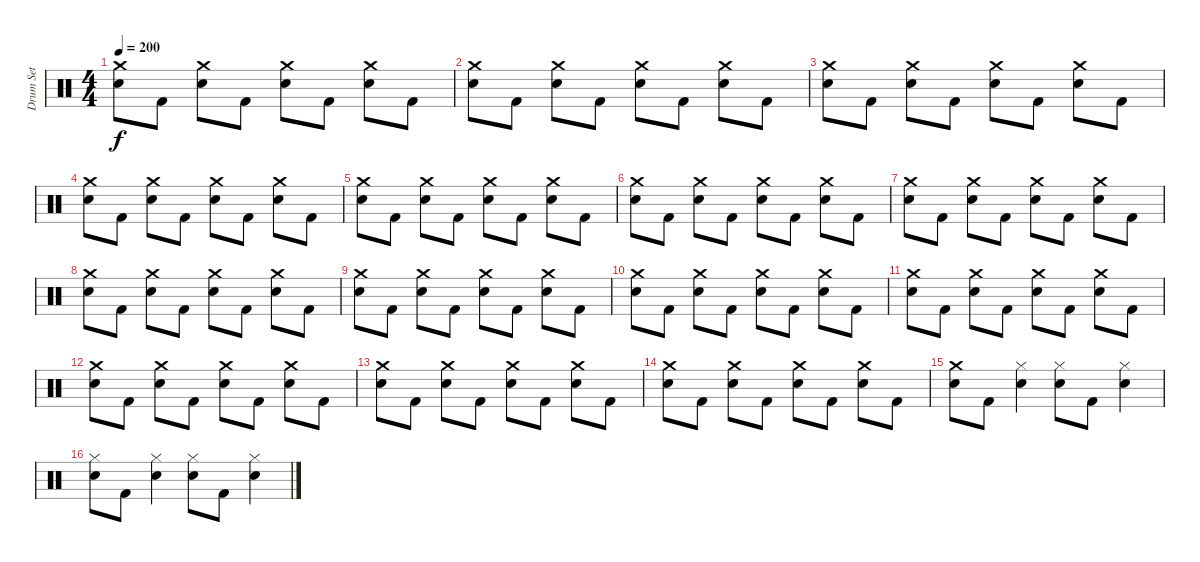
\track ("Drum Set" "Drum Set") {instrument percussion}
\staff {score}
\articulation defaults
\ts (4 4)
\tempo 200
\clef neutral
\ks c
("Crash medium (hit)" "Snare (hit) 2").8{dy f} "Kick (hit) 2".8 ("Crash medium (hit)" "Snare (hit) 2").8 "Kick (hit) 2".8 ("Crash medium (hit)" "Snare (hit) 2").8 "Kick (hit) 2".8 ("Crash medium (hit)" "Snare (hit) 2").8 "Kick (hit) 2".8 |
("Crash medium (hit)" "Snare (hit) 2").8 "Kick (hit) 2".8 ("Crash medium (hit)" "Snare (hit) 2").8 "Kick (hit) 2".8 ("Crash medium (hit)" "Snare (hit) 2").8 "Kick (hit) 2".8 ("Crash medium (hit)" "Snare (hit) 2").8 "Kick (hit) 2".8 |
("Crash medium (hit)" "Snare (hit) 2").8 "Kick (hit) 2".8 ("Crash medium (hit)" "Snare (hit) 2").8 "Kick (hit) 2".8 ("Crash medium (hit)" "Snare (hit) 2").8 "Kick (hit) 2".8 ("Crash medium (hit)" "Snare (hit) 2").8 "Kick (hit) 2".8 |
("Crash medium (hit)" "Snare (hit) 2").8 "Kick (hit) 2".8 ("Crash medium (hit)" "Snare (hit) 2").8 "Kick (hit) 2".8 ("Crash medium (hit)" "Snare (hit) 2").8 "Kick (hit) 2".8 ("Crash medium (hit)" "Snare (hit) 2").8 "Kick (hit) 2".8 |
("Crash medium (hit)" "Snare (hit) 2").8 "Kick (hit) 2".8 ("Crash medium (hit)" "Snare (hit) 2").8 "Kick (hit) 2".8 ("Crash medium (hit)" "Snare (hit) 2").8 "Kick (hit) 2".8 ("Crash medium (hit)" "Snare (hit) 2").8 "Kick (hit) 2".8 |
("Crash medium (hit)" "Snare (hit) 2").8 "Kick (hit) 2".8 ("Crash medium (hit)" "Snare (hit) 2").8 "Kick (hit) 2".8 ("Crash medium (hit)" "Snare (hit) 2").8 "Kick (hit) 2".8 ("Crash medium (hit)" "Snare (hit) 2").8 "Kick (hit) 2".8 |
("Crash medium (hit)" "Snare (hit) 2").8 "Kick (hit) 2".8 ("Crash medium (hit)" "Snare (hit) 2").8 "Kick (hit) 2".8 ("Crash medium (hit)" "Snare (hit) 2").8 "Kick (hit) 2".8 ("Crash medium (hit)" "Snare (hit) 2").8 "Kick (hit) 2".8 |
("Crash medium (hit)" "Snare (hit) 2").8 "Kick (hit) 2".8 ("Crash medium (hit)" "Snare (hit) 2").8 "Kick (hit) 2".8 ("Crash medium (hit)" "Snare (hit) 2").8 "Kick (hit) 2".8 ("Crash medium (hit)" "Snare (hit) 2").8 "Kick (hit) 2".8 |
("Crash medium (hit)" "Snare (hit) 2").8 "Kick (hit) 2".8 ("Crash medium (hit)" "Snare (hit) 2").8 "Kick (hit) 2".8 ("Crash medium (hit)" "Snare (hit) 2").8 "Kick (hit) 2".8 ("Crash medium (hit)" "Snare (hit) 2").8 "Kick (hit) 2".8 |
("Crash medium (hit)" "Snare (hit) 2").8 "Kick (hit) 2".8 ("Crash medium (hit)" "Snare (hit) 2").8 "Kick (hit) 2".8 ("Crash medium (hit)" "Snare (hit) 2").8 "Kick (hit) 2".8 ("Crash medium (hit)" "Snare (hit) 2").8 "Kick (hit) 2".8 |
("Crash medium (hit)" "Snare (hit) 2").8 "Kick (hit) 2".8 ("Crash medium (hit)" "Snare (hit) 2").8 "Kick (hit) 2".8 ("Crash medium (hit)" "Snare (hit) 2").8 "Kick (hit) 2".8 ("Crash medium (hit)" "Snare (hit) 2").8 "Kick (hit) 2".8 |
("Crash medium (hit)" "Snare (hit) 2").8 "Kick (hit) 2".8 ("Crash medium (hit)" "Snare (hit) 2").8 "Kick (hit) 2".8 ("Crash medium (hit)" "Snare (hit) 2").8 "Kick (hit) 2".8 ("Crash medium (hit)" "Snare (hit) 2").8 "Kick (hit) 2".8 |
("Crash medium (hit)" "Snare (hit) 2").8 "Kick (hit) 2".8 ("Crash medium (hit)" "Snare (hit) 2").8 "Kick (hit) 2".8 ("Crash medium (hit)" "Snare (hit) 2").8 "Kick (hit) 2".8 ("Crash medium (hit)" "Snare (hit) 2").8 "Kick (hit) 2".8 |
("Crash medium (hit)" "Snare (hit) 2").8 "Kick (hit) 2".8 ("Crash medium (hit)" "Snare (hit) 2").8 "Kick (hit) 2".8 ("Crash medium (hit)" "Snare (hit) 2").8 "Kick (hit) 2".8 ("Crash medium (hit)" "Snare (hit) 2").8 "Kick (hit) 2".8 |
("Crash medium (hit)" "Snare (hit) 2").8 "Kick (hit) 2".8 ("Hi-Hat (closed)" "Snare (hit) 2").4 ("Hi-Hat (closed)" "Snare (hit) 2").8 "Kick (hit) 2".8 ("Hi-Hat (closed)" "Snare (hit) 2").4 |
("Hi-Hat (closed)" "Snare (hit) 2").8 "Kick (hit) 2".8 ("Hi-Hat (closed)" "Snare (hit) 2").4 ("Hi-Hat (closed)" "Snare (hit) 2").8 "Kick (hit) 2".8 ("Hi-Hat (closed)" "Snare (hit) 2").4
